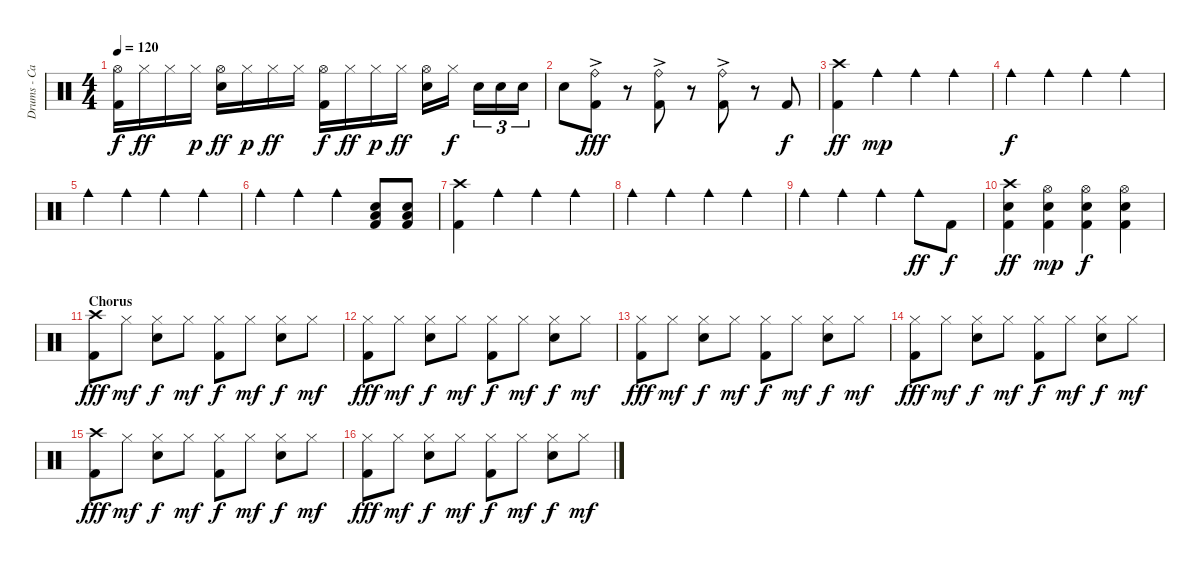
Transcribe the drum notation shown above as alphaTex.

\track ("Drums - Carl Palmer" "Drums - Ca") {instrument percussion}
\staff {score}
\articulation defaults
\ts (4 4)
\tempo 120
\clef neutral
\ks c
("Hi-Hat (open)" "Kick (hit) 2").16{dy f} "Hi-Hat (closed)".16{dy ff} "Hi-Hat (closed)".16 "Hi-Hat (closed)".16{dy p} ("Hi-Hat (open)" "Snare (hit) 2").16{dy ff} "Hi-Hat (closed)".16{dy p} "Hi-Hat (closed)".16{dy ff} "Hi-Hat (closed)".16 ("Hi-Hat (open)" "Kick (hit) 2").16{dy f} "Hi-Hat (closed)".16{dy ff} "Hi-Hat (closed)".16{dy p} "Hi-Hat (closed)".16{dy ff} ("Hi-Hat (open)" "Snare (hit) 2").16 "Hi-Hat (closed)".16{dy f} "Snare (hit) 2".16{tu (3 2)} "Snare (hit) 2".16{tu (3 2)} "Snare (hit) 2".16{tu (3 2)} |
"Snare (hit) 2".8 ("Ride (bell)"{ac} "Kick (hit) 2").8{dy fff} r.8 ("Ride (bell)"{ac} "Kick (hit) 2").8 r.8 ("Ride (bell)"{ac} "Kick (hit) 2").8 r.8 "Kick (hit) 2".8{dy f} |
("Crash high (hit)" "Kick (hit) 2").4{dy ff} "Cowbell medium (hit)".4{dy mp} "Cowbell medium (hit)".4 "Cowbell medium (hit)".4 |
"Cowbell medium (hit)".4{dy f} "Cowbell medium (hit)".4 "Cowbell medium (hit)".4 "Cowbell medium (hit)".4 |
"Cowbell medium (hit)".4 "Cowbell medium (hit)".4 "Cowbell medium (hit)".4 "Cowbell medium (hit)".4 |
"Cowbell medium (hit)".4 "Cowbell medium (hit)".4 "Cowbell medium (hit)".4 ("Snare (hit) 2" "Low Floor Tom (hit)" "Kick (hit) 2").8 ("Snare (hit) 2" "Low Floor Tom (hit)" "Kick (hit) 2").8 |
("Crash high (hit)" "Kick (hit) 2").4 "Cowbell medium (hit)".4 "Cowbell medium (hit)".4 "Cowbell medium (hit)".4 |
"Cowbell medium (hit)".4 "Cowbell medium (hit)".4 "Cowbell medium (hit)".4 "Cowbell medium (hit)".4 |
"Cowbell medium (hit)".4 "Cowbell medium (hit)".4 "Cowbell medium (hit)".4 "Cowbell medium (hit)".8{dy ff} "Kick (hit) 2".8{dy f} |
("Crash high (hit)" "Snare (hit) 2" "Kick (hit) 2").4{dy ff} ("Hi-Hat (open)" "Snare (hit) 2" "Kick (hit) 2").4{dy mp} ("Hi-Hat (open)" "Snare (hit) 2" "Kick (hit) 2").4{dy f} ("Hi-Hat (open)" "Snare (hit) 2" "Kick (hit) 2").4 |
\section ("" "Chorus")
("Crash high (hit)" "Kick (hit) 2").8{dy fff} "Hi-Hat (closed)".8{dy mf} ("Hi-Hat (closed)" "Snare (hit) 2").8{dy f} "Hi-Hat (closed)".8{dy mf} ("Hi-Hat (closed)" "Kick (hit) 2").8{dy f} "Hi-Hat (closed)".8{dy mf} ("Hi-Hat (closed)" "Snare (hit) 2").8{dy f} "Hi-Hat (closed)".8{dy mf} |
("Hi-Hat (closed)" "Kick (hit) 2").8{dy fff} "Hi-Hat (closed)".8{dy mf} ("Hi-Hat (closed)" "Snare (hit) 2").8{dy f} "Hi-Hat (closed)".8{dy mf} ("Hi-Hat (closed)" "Kick (hit) 2").8{dy f} "Hi-Hat (closed)".8{dy mf} ("Hi-Hat (closed)" "Snare (hit) 2").8{dy f} "Hi-Hat (closed)".8{dy mf} |
("Hi-Hat (closed)" "Kick (hit) 2").8{dy fff} "Hi-Hat (closed)".8{dy mf} ("Hi-Hat (closed)" "Snare (hit) 2").8{dy f} "Hi-Hat (closed)".8{dy mf} ("Hi-Hat (closed)" "Kick (hit) 2").8{dy f} "Hi-Hat (closed)".8{dy mf} ("Hi-Hat (closed)" "Snare (hit) 2").8{dy f} "Hi-Hat (closed)".8{dy mf} |
("Hi-Hat (closed)" "Kick (hit) 2").8{dy fff} "Hi-Hat (closed)".8{dy mf} ("Hi-Hat (closed)" "Snare (hit) 2").8{dy f} "Hi-Hat (closed)".8{dy mf} ("Hi-Hat (closed)" "Kick (hit) 2").8{dy f} "Hi-Hat (closed)".8{dy mf} ("Hi-Hat (closed)" "Snare (hit) 2").8{dy f} "Hi-Hat (closed)".8{dy mf} |
("Crash high (hit)" "Kick (hit) 2").8{dy fff} "Hi-Hat (closed)".8{dy mf} ("Hi-Hat (closed)" "Snare (hit) 2").8{dy f} "Hi-Hat (closed)".8{dy mf} ("Hi-Hat (closed)" "Kick (hit) 2").8{dy f} "Hi-Hat (closed)".8{dy mf} ("Hi-Hat (closed)" "Snare (hit) 2").8{dy f} "Hi-Hat (closed)".8{dy mf} |
("Hi-Hat (closed)" "Kick (hit) 2").8{dy fff} "Hi-Hat (closed)".8{dy mf} ("Hi-Hat (closed)" "Snare (hit) 2").8{dy f} "Hi-Hat (closed)".8{dy mf} ("Hi-Hat (closed)" "Kick (hit) 2").8{dy f} "Hi-Hat (closed)".8{dy mf} ("Hi-Hat (closed)" "Snare (hit) 2").8{dy f} "Hi-Hat (closed)".8{dy mf}
